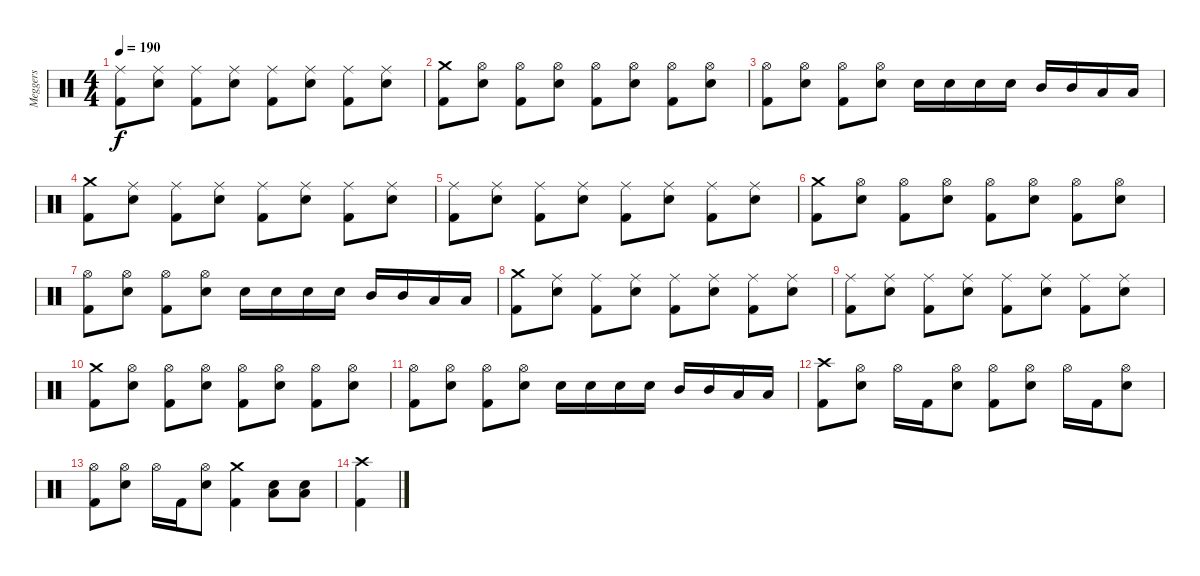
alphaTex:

\track ("Meggers" "Meggers") {instrument percussion}
\staff {score}
\articulation defaults
\ts (4 4)
\tempo 190
\clef neutral
\ks c
("Ride (middle)" "Kick (hit) 2").8{dy f} ("Ride (middle)" "Electric Snare (hit)").8 ("Ride (middle)" "Kick (hit) 2").8 ("Ride (middle)" "Electric Snare (hit)").8 ("Ride (middle)" "Kick (hit) 2").8 ("Ride (middle)" "Electric Snare (hit)").8 ("Ride (middle)" "Kick (hit) 2").8 ("Ride (middle)" "Electric Snare (hit)").8 |
("Crash medium (hit)" "Kick (hit) 2").8 ("Hi-Hat (open)" "Electric Snare (hit)").8 ("Hi-Hat (open)" "Kick (hit) 2").8 ("Hi-Hat (open)" "Electric Snare (hit)").8 ("Hi-Hat (open)" "Kick (hit) 2").8 ("Hi-Hat (open)" "Electric Snare (hit)").8 ("Hi-Hat (open)" "Kick (hit) 2").8 ("Hi-Hat (open)" "Electric Snare (hit)").8 |
("Hi-Hat (open)" "Kick (hit) 2").8 ("Hi-Hat (open)" "Electric Snare (hit)").8 ("Hi-Hat (open)" "Kick (hit) 2").8 ("Hi-Hat (open)" "Electric Snare (hit)").8 "Electric Snare (hit)".16 "Electric Snare (hit)".16 "Electric Snare (hit)".16 "Electric Snare (hit)".16 "Mid Tom (hit)".16 "Mid Tom (hit)".16 "Low Tom (hit)".16 "Low Tom (hit)".16 |
("Crash medium (hit)" "Kick (hit) 2").8 ("Ride (middle)" "Electric Snare (hit)").8 ("Ride (middle)" "Kick (hit) 2").8 ("Ride (middle)" "Electric Snare (hit)").8 ("Ride (middle)" "Kick (hit) 2").8 ("Ride (middle)" "Electric Snare (hit)").8 ("Ride (middle)" "Kick (hit) 2").8 ("Ride (middle)" "Electric Snare (hit)").8 |
("Ride (middle)" "Kick (hit) 2").8 ("Ride (middle)" "Electric Snare (hit)").8 ("Ride (middle)" "Kick (hit) 2").8 ("Ride (middle)" "Electric Snare (hit)").8 ("Ride (middle)" "Kick (hit) 2").8 ("Ride (middle)" "Electric Snare (hit)").8 ("Ride (middle)" "Kick (hit) 2").8 ("Ride (middle)" "Electric Snare (hit)").8 |
("Crash medium (hit)" "Kick (hit) 2").8 ("Hi-Hat (open)" "Electric Snare (hit)").8 ("Hi-Hat (open)" "Kick (hit) 2").8 ("Hi-Hat (open)" "Electric Snare (hit)").8 ("Hi-Hat (open)" "Kick (hit) 2").8 ("Hi-Hat (open)" "Electric Snare (hit)").8 ("Hi-Hat (open)" "Kick (hit) 2").8 ("Hi-Hat (open)" "Electric Snare (hit)").8 |
("Hi-Hat (open)" "Kick (hit) 2").8 ("Hi-Hat (open)" "Electric Snare (hit)").8 ("Hi-Hat (open)" "Kick (hit) 2").8 ("Hi-Hat (open)" "Electric Snare (hit)").8 "Electric Snare (hit)".16 "Electric Snare (hit)".16 "Electric Snare (hit)".16 "Electric Snare (hit)".16 "Mid Tom (hit)".16 "Mid Tom (hit)".16 "Low Tom (hit)".16 "Low Tom (hit)".16 |
("Crash medium (hit)" "Kick (hit) 2").8 ("Ride (middle)" "Electric Snare (hit)").8 ("Ride (middle)" "Kick (hit) 2").8 ("Ride (middle)" "Electric Snare (hit)").8 ("Ride (middle)" "Kick (hit) 2").8 ("Ride (middle)" "Electric Snare (hit)").8 ("Ride (middle)" "Kick (hit) 2").8 ("Ride (middle)" "Electric Snare (hit)").8 |
("Ride (middle)" "Kick (hit) 2").8 ("Ride (middle)" "Electric Snare (hit)").8 ("Ride (middle)" "Kick (hit) 2").8 ("Ride (middle)" "Electric Snare (hit)").8 ("Ride (middle)" "Kick (hit) 2").8 ("Ride (middle)" "Electric Snare (hit)").8 ("Ride (middle)" "Kick (hit) 2").8 ("Ride (middle)" "Electric Snare (hit)").8 |
("Crash medium (hit)" "Kick (hit) 2").8 ("Hi-Hat (open)" "Electric Snare (hit)").8 ("Hi-Hat (open)" "Kick (hit) 2").8 ("Hi-Hat (open)" "Electric Snare (hit)").8 ("Hi-Hat (open)" "Kick (hit) 2").8 ("Hi-Hat (open)" "Electric Snare (hit)").8 ("Hi-Hat (open)" "Kick (hit) 2").8 ("Hi-Hat (open)" "Electric Snare (hit)").8 |
("Hi-Hat (open)" "Kick (hit) 2").8 ("Hi-Hat (open)" "Electric Snare (hit)").8 ("Hi-Hat (open)" "Kick (hit) 2").8 ("Hi-Hat (open)" "Electric Snare (hit)").8 "Electric Snare (hit)".16 "Electric Snare (hit)".16 "Electric Snare (hit)".16 "Electric Snare (hit)".16 "Mid Tom (hit)".16 "Mid Tom (hit)".16 "Low Tom (hit)".16 "Low Tom (hit)".16 |
("Crash high (hit)" "Kick (hit) 2").8 ("Hi-Hat (open)" "Electric Snare (hit)").8 "Hi-Hat (open)".16 "Kick (hit) 2".16 ("Hi-Hat (open)" "Electric Snare (hit)").8 ("Hi-Hat (open)" "Kick (hit) 2").8 ("Hi-Hat (open)" "Electric Snare (hit)").8 "Hi-Hat (open)".16 "Kick (hit) 2".16 ("Hi-Hat (open)" "Electric Snare (hit)").8 |
("Hi-Hat (open)" "Kick (hit) 2").8 ("Hi-Hat (open)" "Electric Snare (hit)").8 "Hi-Hat (open)".16 "Kick (hit) 2".16 ("Hi-Hat (open)" "Electric Snare (hit)").8 ("Crash medium (hit)" "Kick (hit) 2").4 ("Low Floor Tom (hit)" "Electric Snare (hit)").8 ("Low Floor Tom (hit)" "Electric Snare (hit)").8 |
("Crash high (hit)" "Kick (hit) 2").4
